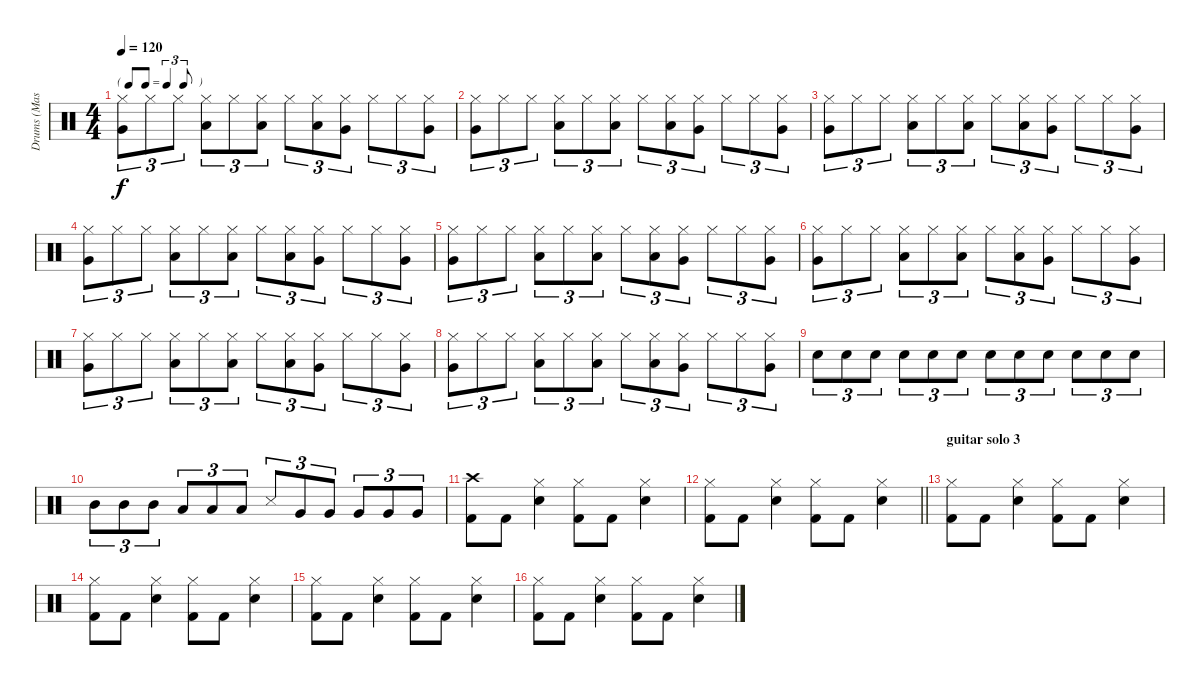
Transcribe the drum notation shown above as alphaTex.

\track ("Drums (Mason)" "Drums (Mas") {instrument percussion}
\staff {score}
\articulation defaults
\ts (4 4)
\tf triplet8th
\tempo 120
\clef neutral
\ks c
("Hi-Hat (closed)" "Very Low Tom (hit)").8{tu (3 2) dy f} "Hi-Hat (closed)".8{tu (3 2)} "Hi-Hat (closed)".8{tu (3 2)} ("Hi-Hat (closed)" "Low Tom (hit)").8{tu (3 2)} "Hi-Hat (closed)".8{tu (3 2)} ("Hi-Hat (closed)" "Low Tom (hit)").8{tu (3 2)} "Hi-Hat (closed)".8{tu (3 2)} ("Hi-Hat (closed)" "Low Tom (hit)").8{tu (3 2)} ("Hi-Hat (closed)" "Very Low Tom (hit)").8{tu (3 2)} "Hi-Hat (closed)".8{tu (3 2)} "Hi-Hat (closed)".8{tu (3 2)} ("Hi-Hat (closed)" "Very Low Tom (hit)").8{tu (3 2)} |
("Hi-Hat (closed)" "Very Low Tom (hit)").8{tu (3 2)} "Hi-Hat (closed)".8{tu (3 2)} "Hi-Hat (closed)".8{tu (3 2)} ("Hi-Hat (closed)" "Low Tom (hit)").8{tu (3 2)} "Hi-Hat (closed)".8{tu (3 2)} ("Hi-Hat (closed)" "Low Tom (hit)").8{tu (3 2)} "Hi-Hat (closed)".8{tu (3 2)} ("Hi-Hat (closed)" "Low Tom (hit)").8{tu (3 2)} ("Hi-Hat (closed)" "Very Low Tom (hit)").8{tu (3 2)} "Hi-Hat (closed)".8{tu (3 2)} "Hi-Hat (closed)".8{tu (3 2)} ("Hi-Hat (closed)" "Very Low Tom (hit)").8{tu (3 2)} |
("Hi-Hat (closed)" "Very Low Tom (hit)").8{tu (3 2)} "Hi-Hat (closed)".8{tu (3 2)} "Hi-Hat (closed)".8{tu (3 2)} ("Hi-Hat (closed)" "Low Tom (hit)").8{tu (3 2)} "Hi-Hat (closed)".8{tu (3 2)} ("Hi-Hat (closed)" "Low Tom (hit)").8{tu (3 2)} "Hi-Hat (closed)".8{tu (3 2)} ("Hi-Hat (closed)" "Low Tom (hit)").8{tu (3 2)} ("Hi-Hat (closed)" "Very Low Tom (hit)").8{tu (3 2)} "Hi-Hat (closed)".8{tu (3 2)} "Hi-Hat (closed)".8{tu (3 2)} ("Hi-Hat (closed)" "Very Low Tom (hit)").8{tu (3 2)} |
("Hi-Hat (closed)" "Very Low Tom (hit)").8{tu (3 2)} "Hi-Hat (closed)".8{tu (3 2)} "Hi-Hat (closed)".8{tu (3 2)} ("Hi-Hat (closed)" "Low Tom (hit)").8{tu (3 2)} "Hi-Hat (closed)".8{tu (3 2)} ("Hi-Hat (closed)" "Low Tom (hit)").8{tu (3 2)} "Hi-Hat (closed)".8{tu (3 2)} ("Hi-Hat (closed)" "Low Tom (hit)").8{tu (3 2)} ("Hi-Hat (closed)" "Very Low Tom (hit)").8{tu (3 2)} "Hi-Hat (closed)".8{tu (3 2)} "Hi-Hat (closed)".8{tu (3 2)} ("Hi-Hat (closed)" "Very Low Tom (hit)").8{tu (3 2)} |
("Hi-Hat (closed)" "Very Low Tom (hit)").8{tu (3 2)} "Hi-Hat (closed)".8{tu (3 2)} "Hi-Hat (closed)".8{tu (3 2)} ("Hi-Hat (closed)" "Low Tom (hit)").8{tu (3 2)} "Hi-Hat (closed)".8{tu (3 2)} ("Hi-Hat (closed)" "Low Tom (hit)").8{tu (3 2)} "Hi-Hat (closed)".8{tu (3 2)} ("Hi-Hat (closed)" "Low Tom (hit)").8{tu (3 2)} ("Hi-Hat (closed)" "Very Low Tom (hit)").8{tu (3 2)} "Hi-Hat (closed)".8{tu (3 2)} "Hi-Hat (closed)".8{tu (3 2)} ("Hi-Hat (closed)" "Very Low Tom (hit)").8{tu (3 2)} |
("Hi-Hat (closed)" "Very Low Tom (hit)").8{tu (3 2)} "Hi-Hat (closed)".8{tu (3 2)} "Hi-Hat (closed)".8{tu (3 2)} ("Hi-Hat (closed)" "Low Tom (hit)").8{tu (3 2)} "Hi-Hat (closed)".8{tu (3 2)} ("Hi-Hat (closed)" "Low Tom (hit)").8{tu (3 2)} "Hi-Hat (closed)".8{tu (3 2)} ("Hi-Hat (closed)" "Low Tom (hit)").8{tu (3 2)} ("Hi-Hat (closed)" "Very Low Tom (hit)").8{tu (3 2)} "Hi-Hat (closed)".8{tu (3 2)} "Hi-Hat (closed)".8{tu (3 2)} ("Hi-Hat (closed)" "Very Low Tom (hit)").8{tu (3 2)} |
("Hi-Hat (closed)" "Very Low Tom (hit)").8{tu (3 2)} "Hi-Hat (closed)".8{tu (3 2)} "Hi-Hat (closed)".8{tu (3 2)} ("Hi-Hat (closed)" "Low Tom (hit)").8{tu (3 2)} "Hi-Hat (closed)".8{tu (3 2)} ("Hi-Hat (closed)" "Low Tom (hit)").8{tu (3 2)} "Hi-Hat (closed)".8{tu (3 2)} ("Hi-Hat (closed)" "Low Tom (hit)").8{tu (3 2)} ("Hi-Hat (closed)" "Very Low Tom (hit)").8{tu (3 2)} "Hi-Hat (closed)".8{tu (3 2)} "Hi-Hat (closed)".8{tu (3 2)} ("Hi-Hat (closed)" "Very Low Tom (hit)").8{tu (3 2)} |
("Hi-Hat (closed)" "Very Low Tom (hit)").8{tu (3 2)} "Hi-Hat (closed)".8{tu (3 2)} "Hi-Hat (closed)".8{tu (3 2)} ("Hi-Hat (closed)" "Low Tom (hit)").8{tu (3 2)} "Hi-Hat (closed)".8{tu (3 2)} ("Hi-Hat (closed)" "Low Tom (hit)").8{tu (3 2)} "Hi-Hat (closed)".8{tu (3 2)} ("Hi-Hat (closed)" "Low Tom (hit)").8{tu (3 2)} ("Hi-Hat (closed)" "Very Low Tom (hit)").8{tu (3 2)} "Hi-Hat (closed)".8{tu (3 2)} "Hi-Hat (closed)".8{tu (3 2)} ("Hi-Hat (closed)" "Very Low Tom (hit)").8{tu (3 2)} |
"Electric Snare (hit)".8{tu (3 2)} "Electric Snare (hit)".8{tu (3 2)} "Electric Snare (hit)".8{tu (3 2)} "Electric Snare (hit)".8{tu (3 2)} "Electric Snare (hit)".8{tu (3 2)} "Electric Snare (hit)".8{tu (3 2)} "Electric Snare (hit)".8{tu (3 2)} "Electric Snare (hit)".8{tu (3 2)} "Electric Snare (hit)".8{tu (3 2)} "Electric Snare (hit)".8{tu (3 2)} "Electric Snare (hit)".8{tu (3 2)} "Electric Snare (hit)".8{tu (3 2)} |
"Mid Tom (hit)".8{tu (3 2)} "Mid Tom (hit)".8{tu (3 2)} "Mid Tom (hit)".8{tu (3 2)} "Low Tom (hit)".8{tu (3 2)} "Low Tom (hit)".8{tu (3 2)} "Low Tom (hit)".8{tu (3 2)} "Snare (side stick) 3".8{tu (3 2)} "Very Low Tom (hit)".8{tu (3 2)} "Very Low Tom (hit)".8{tu (3 2)} "Very Low Tom (hit)".8{tu (3 2)} "Very Low Tom (hit)".8{tu (3 2)} "Very Low Tom (hit)".8{tu (3 2)} |
("Crash high (hit)" "Kick (hit) 2").8 "Kick (hit) 2".8 ("Hi-Hat (closed)" "Electric Snare (hit)").4 ("Hi-Hat (closed)" "Kick (hit) 2").8 "Kick (hit) 2".8 ("Hi-Hat (closed)" "Electric Snare (hit)").4 |
\barLineRight lightlight
("Hi-Hat (closed)" "Kick (hit) 2").8 "Kick (hit) 2".8 ("Hi-Hat (closed)" "Electric Snare (hit)").4 ("Hi-Hat (closed)" "Kick (hit) 2").8 "Kick (hit) 2".8 ("Hi-Hat (closed)" "Electric Snare (hit)").4 |
\section ("" "guitar solo 3")
("Hi-Hat (closed)" "Kick (hit) 2").8 "Kick (hit) 2".8 ("Hi-Hat (closed)" "Electric Snare (hit)").4 ("Hi-Hat (closed)" "Kick (hit) 2").8 "Kick (hit) 2".8 ("Hi-Hat (closed)" "Electric Snare (hit)").4 |
("Hi-Hat (closed)" "Kick (hit) 2").8 "Kick (hit) 2".8 ("Hi-Hat (closed)" "Electric Snare (hit)").4 ("Hi-Hat (closed)" "Kick (hit) 2").8 "Kick (hit) 2".8 ("Hi-Hat (closed)" "Electric Snare (hit)").4 |
("Hi-Hat (closed)" "Kick (hit) 2").8 "Kick (hit) 2".8 ("Hi-Hat (closed)" "Electric Snare (hit)").4 ("Hi-Hat (closed)" "Kick (hit) 2").8 "Kick (hit) 2".8 ("Hi-Hat (closed)" "Electric Snare (hit)").4 |
("Hi-Hat (closed)" "Kick (hit) 2").8 "Kick (hit) 2".8 ("Hi-Hat (closed)" "Electric Snare (hit)").4 ("Hi-Hat (closed)" "Kick (hit) 2").8 "Kick (hit) 2".8 ("Hi-Hat (closed)" "Electric Snare (hit)").4
